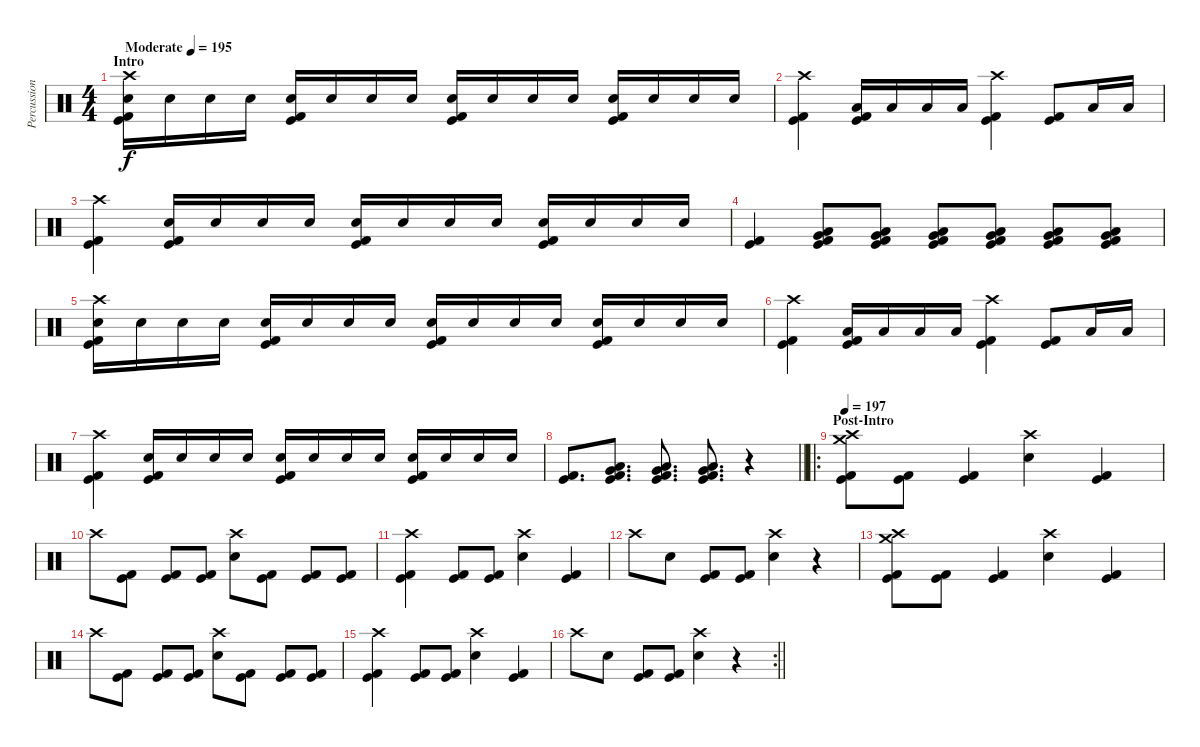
\track ("Percussion" "Percussion") {instrument percussion}
\staff {score}
\articulation defaults
\ts (4 4)
\section ("" "Intro")
\tempo (195 "Moderate")
\clef neutral
\ks c
("Crash high (hit)" "Electric Snare (hit)" "Kick (hit)" "Kick (hit) 2").16{dy f} "Electric Snare (hit)".16 "Electric Snare (hit)".16 "Electric Snare (hit)".16 ("Electric Snare (hit)" "Kick (hit)" "Kick (hit) 2").16 "Electric Snare (hit)".16 "Electric Snare (hit)".16 "Electric Snare (hit)".16 ("Electric Snare (hit)" "Kick (hit)" "Kick (hit) 2").16 "Electric Snare (hit)".16 "Electric Snare (hit)".16 "Electric Snare (hit)".16 ("Electric Snare (hit)" "Kick (hit)" "Kick (hit) 2").16 "Electric Snare (hit)".16 "Electric Snare (hit)".16 "Electric Snare (hit)".16 |
("Crash high (hit)" "Kick (hit)" "Kick (hit) 2").4 ("Low Tom (hit)" "Kick (hit)" "Kick (hit) 2").16 "Low Tom (hit)".16 "Low Tom (hit)".16 "Low Tom (hit)".16 ("Crash high (hit)" "Kick (hit)" "Kick (hit) 2").4 ("Kick (hit)" "Kick (hit) 2").8 "Low Tom (hit)".16 "Low Tom (hit)".16 |
("Crash high (hit)" "Kick (hit)" "Kick (hit) 2").4 ("Electric Snare (hit)" "Kick (hit)" "Kick (hit) 2").16 "Electric Snare (hit)".16 "Electric Snare (hit)".16 "Electric Snare (hit)".16 ("Electric Snare (hit)" "Kick (hit)" "Kick (hit) 2").16 "Electric Snare (hit)".16 "Electric Snare (hit)".16 "Electric Snare (hit)".16 ("Electric Snare (hit)" "Kick (hit)" "Kick (hit) 2").16 "Electric Snare (hit)".16 "Electric Snare (hit)".16 "Electric Snare (hit)".16 |
("Kick (hit)" "Kick (hit) 2").4 ("Very Low Tom (hit)" "Low Floor Tom (hit)" "Kick (hit)" "Kick (hit) 2").8 ("Very Low Tom (hit)" "Low Floor Tom (hit)" "Kick (hit)" "Kick (hit) 2").8 ("Very Low Tom (hit)" "Low Floor Tom (hit)" "Kick (hit)" "Kick (hit) 2").8 ("Very Low Tom (hit)" "Low Floor Tom (hit)" "Kick (hit)" "Kick (hit) 2").8 ("Very Low Tom (hit)" "Low Floor Tom (hit)" "Kick (hit)" "Kick (hit) 2").8 ("Very Low Tom (hit)" "Low Floor Tom (hit)" "Kick (hit)" "Kick (hit) 2").8 |
("Crash high (hit)" "Electric Snare (hit)" "Kick (hit)" "Kick (hit) 2").16 "Electric Snare (hit)".16 "Electric Snare (hit)".16 "Electric Snare (hit)".16 ("Electric Snare (hit)" "Kick (hit)" "Kick (hit) 2").16 "Electric Snare (hit)".16 "Electric Snare (hit)".16 "Electric Snare (hit)".16 ("Electric Snare (hit)" "Kick (hit)" "Kick (hit) 2").16 "Electric Snare (hit)".16 "Electric Snare (hit)".16 "Electric Snare (hit)".16 ("Electric Snare (hit)" "Kick (hit)" "Kick (hit) 2").16 "Electric Snare (hit)".16 "Electric Snare (hit)".16 "Electric Snare (hit)".16 |
("Crash high (hit)" "Kick (hit)" "Kick (hit) 2").4 ("Low Tom (hit)" "Kick (hit)" "Kick (hit) 2").16 "Low Tom (hit)".16 "Low Tom (hit)".16 "Low Tom (hit)".16 ("Crash high (hit)" "Kick (hit)" "Kick (hit) 2").4 ("Kick (hit)" "Kick (hit) 2").8 "Low Tom (hit)".16 "Low Tom (hit)".16 |
("Crash high (hit)" "Kick (hit)" "Kick (hit) 2").4 ("Electric Snare (hit)" "Kick (hit)" "Kick (hit) 2").16 "Electric Snare (hit)".16 "Electric Snare (hit)".16 "Electric Snare (hit)".16 ("Electric Snare (hit)" "Kick (hit)" "Kick (hit) 2").16 "Electric Snare (hit)".16 "Electric Snare (hit)".16 "Electric Snare (hit)".16 ("Electric Snare (hit)" "Kick (hit)" "Kick (hit) 2").16 "Electric Snare (hit)".16 "Electric Snare (hit)".16 "Electric Snare (hit)".16 |
\barLineRight lightlight
("Kick (hit)" "Kick (hit) 2").8{d} ("Very Low Tom (hit)" "Low Floor Tom (hit)" "Kick (hit)" "Kick (hit) 2").8{d} ("Very Low Tom (hit)" "Low Floor Tom (hit)" "Kick (hit)" "Kick (hit) 2").8{d} ("Very Low Tom (hit)" "Low Floor Tom (hit)" "Kick (hit)" "Kick (hit) 2").8{d} r.4 |
\ro
\section ("" "Post-Intro")
\tempo 197
("Crash high (hit)" "Crash medium (hit)" "Kick (hit)" "Kick (hit) 2").8 ("Kick (hit)" "Kick (hit) 2").8 ("Kick (hit)" "Kick (hit) 2").4 ("Crash high (hit)" "Electric Snare (hit)").4 ("Kick (hit)" "Kick (hit) 2").4 |
"Crash high (hit)".8 ("Kick (hit)" "Kick (hit) 2").8 ("Kick (hit)" "Kick (hit) 2").8 ("Kick (hit)" "Kick (hit) 2").8 ("Crash high (hit)" "Electric Snare (hit)").8 ("Kick (hit)" "Kick (hit) 2").8 ("Kick (hit)" "Kick (hit) 2").8 ("Kick (hit)" "Kick (hit) 2").8 |
("Crash high (hit)" "Kick (hit)" "Kick (hit) 2").4 ("Kick (hit)" "Kick (hit) 2").8 ("Kick (hit)" "Kick (hit) 2").8 ("Crash high (hit)" "Electric Snare (hit)").4 ("Kick (hit)" "Kick (hit) 2").4 |
"Crash high (hit)".8 "Electric Snare (hit)".8 ("Kick (hit)" "Kick (hit) 2").8 ("Kick (hit)" "Kick (hit) 2").8 ("Crash high (hit)" "Electric Snare (hit)").4 r.4 |
("Crash high (hit)" "Crash medium (hit)" "Kick (hit)" "Kick (hit) 2").8 ("Kick (hit)" "Kick (hit) 2").8 ("Kick (hit)" "Kick (hit) 2").4 ("Crash high (hit)" "Electric Snare (hit)").4 ("Kick (hit)" "Kick (hit) 2").4 |
"Crash high (hit)".8 ("Kick (hit)" "Kick (hit) 2").8 ("Kick (hit)" "Kick (hit) 2").8 ("Kick (hit)" "Kick (hit) 2").8 ("Crash high (hit)" "Electric Snare (hit)").8 ("Kick (hit)" "Kick (hit) 2").8 ("Kick (hit)" "Kick (hit) 2").8 ("Kick (hit)" "Kick (hit) 2").8 |
("Crash high (hit)" "Kick (hit)" "Kick (hit) 2").4 ("Kick (hit)" "Kick (hit) 2").8 ("Kick (hit)" "Kick (hit) 2").8 ("Crash high (hit)" "Electric Snare (hit)").4 ("Kick (hit)" "Kick (hit) 2").4 |
\rc 2
\barLineRight lightlight "Crash high (hit)".8 "Electric Snare (hit)".8
("Kick (hit)" "Kick (hit) 2").8 ("Kick (hit)" "Kick (hit) 2").8 ("Crash high (hit)" "Electric Snare (hit)").4 r.4
